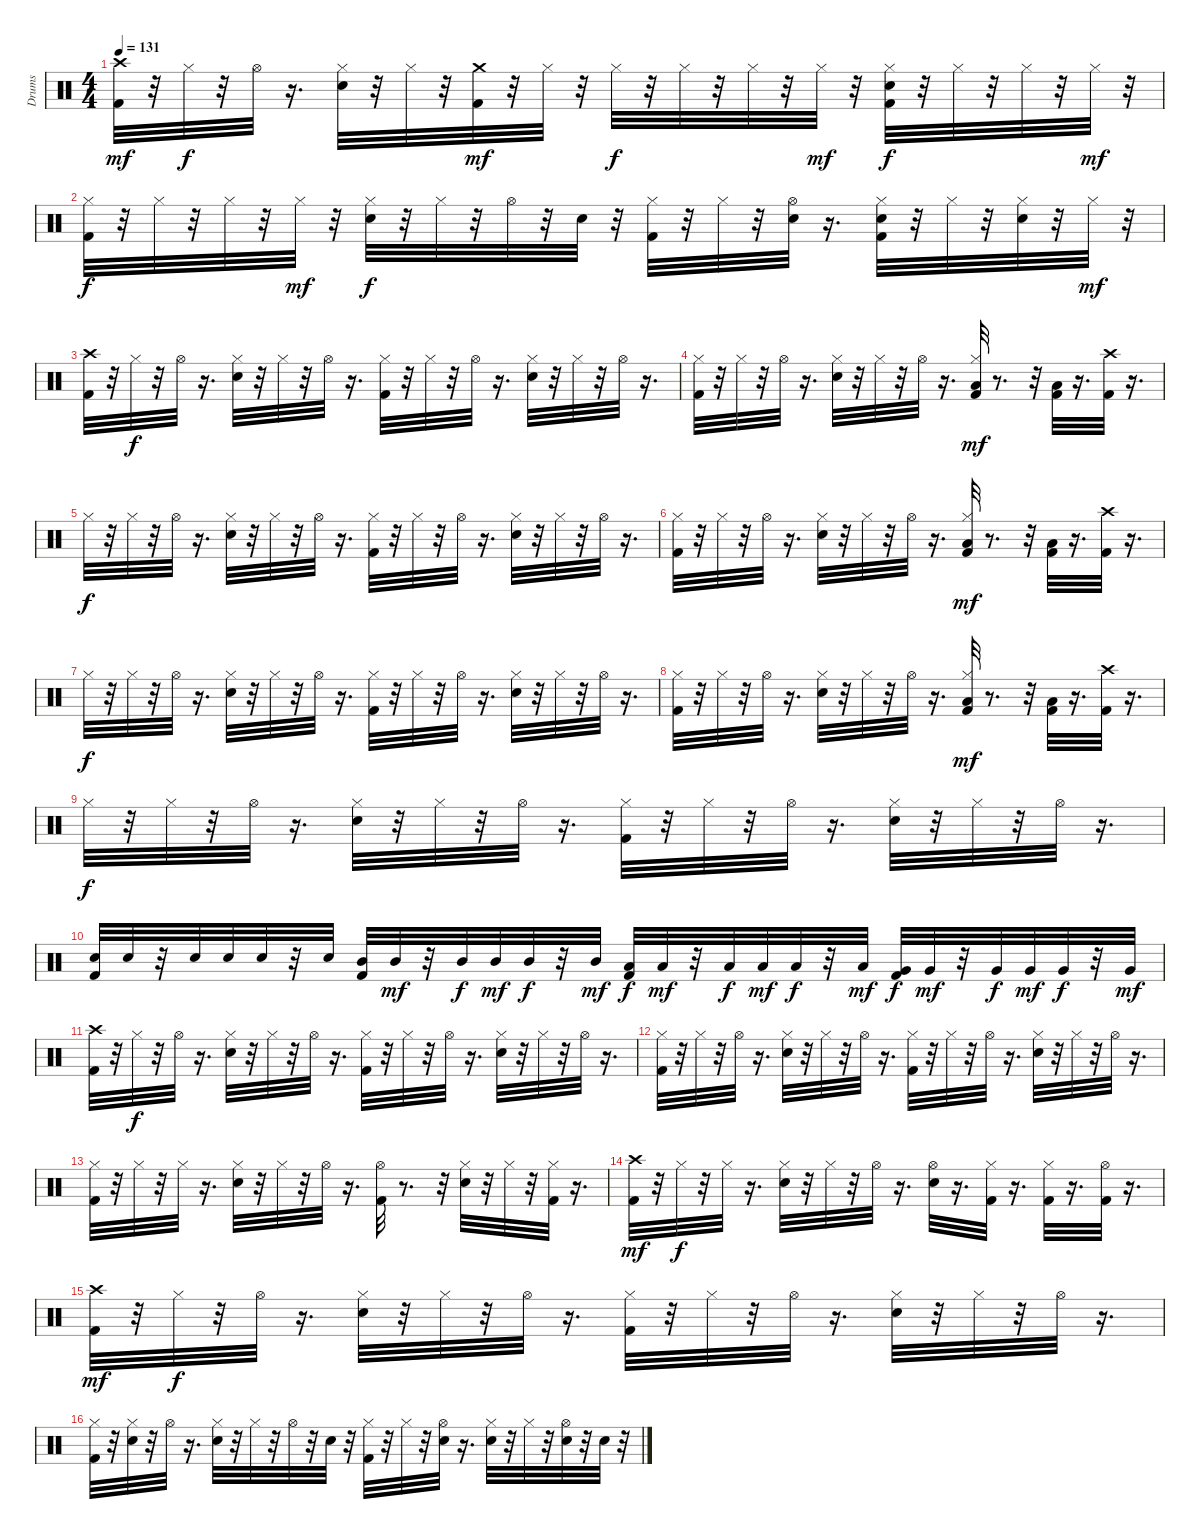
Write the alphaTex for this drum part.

\track ("Drums" "Drums") {instrument percussion}
\staff {score}
\articulation defaults
\ts (4 4)
\tempo 131
\clef neutral
\ks c
("Kick (hit) 2" "Crash high (hit)").32{dy mf} r.32 "Hi-Hat (closed)".32{dy f} r.32 "Hi-Hat (open)".32 r.16{d} ("Snare (hit) 2" "Hi-Hat (closed)").32 r.32 "Hi-Hat (closed)".32 r.32 ("Crash medium (hit)" "Kick (hit) 2").32{dy mf} r.32 "Hi-Hat (closed)".32 r.32 "Hi-Hat (closed)".32{dy f} r.32 "Hi-Hat (closed)".32 r.32 "Hi-Hat (closed)".32 r.32 "Hi-Hat (closed)".32{dy mf} r.32 ("Snare (hit) 2" "Hi-Hat (closed)" "Kick (hit) 2").32{dy f} r.32 "Hi-Hat (closed)".32 r.32 "Hi-Hat (closed)".32 r.32 "Hi-Hat (closed)".32{dy mf} r.32 |
("Kick (hit) 2" "Hi-Hat (closed)").32{dy f} r.32 "Hi-Hat (closed)".32 r.32 "Hi-Hat (closed)".32 r.32 "Hi-Hat (closed)".32{dy mf} r.32 ("Hi-Hat (closed)" "Snare (hit) 2").32{dy f} r.32 "Hi-Hat (closed)".32 r.32 "Hi-Hat (open)".32 r.32 "Snare (hit) 2".32 r.32 ("Hi-Hat (closed)" "Kick (hit) 2").32 r.32 "Hi-Hat (closed)".32 r.32 ("Snare (hit) 2" "Hi-Hat (open)").32 r.16{d} ("Hi-Hat (closed)" "Kick (hit) 2" "Snare (hit) 2").32 r.32 "Hi-Hat (closed)".32 r.32 ("Snare (hit) 2" "Hi-Hat (closed)").32 r.32 "Hi-Hat (closed)".32{dy mf} r.32 |
("Crash high (hit)" "Kick (hit) 2").32 r.32 "Hi-Hat (closed)".32{dy f} r.32 "Hi-Hat (open)".32 r.16{d} ("Hi-Hat (closed)" "Snare (hit) 2").32 r.32 "Hi-Hat (closed)".32 r.32 "Hi-Hat (open)".32 r.16{d} ("Hi-Hat (closed)" "Kick (hit) 2").32 r.32 "Hi-Hat (closed)".32 r.32 "Hi-Hat (open)".32 r.16{d} ("Snare (hit) 2" "Hi-Hat (closed)").32 r.32 "Hi-Hat (closed)".32 r.32 "Hi-Hat (open)".32 r.16{d} |
("Kick (hit) 2" "Hi-Hat (closed)").32 r.32 "Hi-Hat (closed)".32 r.32 "Hi-Hat (open)".32 r.16{d} ("Snare (hit) 2" "Hi-Hat (closed)").32 r.32 "Hi-Hat (closed)".32 r.32 "Hi-Hat (open)".32 r.16{d} ("Low Floor Tom (hit)" "Kick (hit) 2" "Hi-Hat (closed)").32{dy mf} r.8{d} r.32 ("Low Floor Tom (hit)" "Kick (hit) 2").32 r.16{d} ("Kick (hit) 2" "Crash high (hit)").32 r.16{d} |
"Hi-Hat (closed)".32{dy f} r.32 "Hi-Hat (closed)".32 r.32 "Hi-Hat (open)".32 r.16{d} ("Hi-Hat (closed)" "Snare (hit) 2").32 r.32 "Hi-Hat (closed)".32 r.32 "Hi-Hat (open)".32 r.16{d} ("Hi-Hat (closed)" "Kick (hit) 2").32 r.32 "Hi-Hat (closed)".32 r.32 "Hi-Hat (open)".32 r.16{d} ("Snare (hit) 2" "Hi-Hat (closed)").32 r.32 "Hi-Hat (closed)".32 r.32 "Hi-Hat (open)".32 r.16{d} |
("Kick (hit) 2" "Hi-Hat (closed)").32 r.32 "Hi-Hat (closed)".32 r.32 "Hi-Hat (open)".32 r.16{d} ("Snare (hit) 2" "Hi-Hat (closed)").32 r.32 "Hi-Hat (closed)".32 r.32 "Hi-Hat (open)".32 r.16{d} ("Low Floor Tom (hit)" "Kick (hit) 2" "Hi-Hat (closed)").32{dy mf} r.8{d} r.32 ("Low Floor Tom (hit)" "Kick (hit) 2").32 r.16{d} ("Kick (hit) 2" "Crash high (hit)").32 r.16{d} |
"Hi-Hat (closed)".32{dy f} r.32 "Hi-Hat (closed)".32 r.32 "Hi-Hat (open)".32 r.16{d} ("Hi-Hat (closed)" "Snare (hit) 2").32 r.32 "Hi-Hat (closed)".32 r.32 "Hi-Hat (open)".32 r.16{d} ("Hi-Hat (closed)" "Kick (hit) 2").32 r.32 "Hi-Hat (closed)".32 r.32 "Hi-Hat (open)".32 r.16{d} ("Snare (hit) 2" "Hi-Hat (closed)").32 r.32 "Hi-Hat (closed)".32 r.32 "Hi-Hat (open)".32 r.16{d} |
("Kick (hit) 2" "Hi-Hat (closed)").32 r.32 "Hi-Hat (closed)".32 r.32 "Hi-Hat (open)".32 r.16{d} ("Snare (hit) 2" "Hi-Hat (closed)").32 r.32 "Hi-Hat (closed)".32 r.32 "Hi-Hat (open)".32 r.16{d} ("Low Floor Tom (hit)" "Kick (hit) 2" "Hi-Hat (closed)").32{dy mf} r.8{d} r.32 ("Low Floor Tom (hit)" "Kick (hit) 2").32 r.16{d} ("Kick (hit) 2" "Crash high (hit)").32 r.16{d} |
"Hi-Hat (closed)".32{dy f} r.32 "Hi-Hat (closed)".32 r.32 "Hi-Hat (open)".32 r.16{d} ("Hi-Hat (closed)" "Snare (hit) 2").32 r.32 "Hi-Hat (closed)".32 r.32 "Hi-Hat (open)".32 r.16{d} ("Hi-Hat (closed)" "Kick (hit) 2").32 r.32 "Hi-Hat (closed)".32 r.32 "Hi-Hat (open)".32 r.16{d} ("Snare (hit) 2" "Hi-Hat (closed)").32 r.32 "Hi-Hat (closed)".32 r.32 "Hi-Hat (open)".32 r.16{d} |
("Snare (hit) 2" "Kick (hit) 2").32 "Snare (hit) 2".32 r.32 "Snare (hit) 2".32 "Snare (hit) 2".32 "Snare (hit) 2".32 r.32 "Snare (hit) 2".32 ("Kick (hit) 2" "Mid Tom (hit)").32 "Mid Tom (hit)".32{dy mf} r.32 "Mid Tom (hit)".32{dy f} "Mid Tom (hit)".32{dy mf} "Mid Tom (hit)".32{dy f} r.32 "Mid Tom (hit)".32{dy mf} ("Kick (hit) 2" "Low Tom (hit)").32{dy f} "Low Tom (hit)".32{dy mf} r.32 "Low Tom (hit)".32{dy f} "Low Tom (hit)".32{dy mf} "Low Tom (hit)".32{dy f} r.32 "Low Tom (hit)".32{dy mf} ("Kick (hit) 2" "Very Low Tom (hit)").32{dy f} "Very Low Tom (hit)".32{dy mf} r.32 "Very Low Tom (hit)".32{dy f} "Very Low Tom (hit)".32{dy mf} "Very Low Tom (hit)".32{dy f} r.32 "Very Low Tom (hit)".32{dy mf} |
("Crash high (hit)" "Kick (hit) 2").32 r.32 "Hi-Hat (closed)".32{dy f} r.32 "Hi-Hat (open)".32 r.16{d} ("Hi-Hat (closed)" "Snare (hit) 2").32 r.32 "Hi-Hat (closed)".32 r.32 "Hi-Hat (open)".32 r.16{d} ("Hi-Hat (closed)" "Kick (hit) 2").32 r.32 "Hi-Hat (closed)".32 r.32 "Hi-Hat (open)".32 r.16{d} ("Snare (hit) 2" "Hi-Hat (closed)").32 r.32 "Hi-Hat (closed)".32 r.32 "Hi-Hat (open)".32 r.16{d} |
("Kick (hit) 2" "Hi-Hat (closed)").32 r.32 "Hi-Hat (closed)".32 r.32 "Hi-Hat (open)".32 r.16{d} ("Snare (hit) 2" "Hi-Hat (closed)").32 r.32 "Hi-Hat (closed)".32 r.32 "Hi-Hat (open)".32 r.16{d} ("Kick (hit) 2" "Hi-Hat (closed)").32 r.32 "Hi-Hat (closed)".32 r.32 "Hi-Hat (open)".32 r.16{d} ("Hi-Hat (closed)" "Snare (hit) 2").32 r.32 "Hi-Hat (closed)".32 r.32 "Hi-Hat (open)".32 r.16{d} |
("Kick (hit) 2" "Hi-Hat (closed)").32 r.32 "Hi-Hat (closed)".32 r.32 "Hi-Hat (closed)".32 r.16{d} ("Snare (hit) 2" "Hi-Hat (closed)").32 r.32 "Hi-Hat (closed)".32 r.32 "Hi-Hat (open)".32 r.16{d} ("Kick (hit) 2" "Hi-Hat (open)").32 r.8{d} r.32 ("Hi-Hat (closed)" "Snare (hit) 2").32 r.32 "Hi-Hat (closed)".32 r.32 ("Kick (hit) 2" "Hi-Hat (closed)").32 r.16{d} |
("Crash high (hit)" "Kick (hit) 2").32{dy mf} r.32 "Hi-Hat (closed)".32{dy f} r.32 "Hi-Hat (closed)".32 r.16{d} ("Snare (hit) 2" "Hi-Hat (closed)").32 r.32 "Hi-Hat (closed)".32 r.32 "Hi-Hat (open)".32 r.16{d} ("Snare (hit) 2" "Hi-Hat (open)").32 r.16{d} ("Hi-Hat (closed)" "Kick (hit) 2").32 r.16{d} ("Hi-Hat (closed)" "Kick (hit) 2").32 r.16{d} ("Kick (hit) 2" "Hi-Hat (open)").32 r.16{d} |
("Crash high (hit)" "Kick (hit) 2").32{dy mf} r.32 "Hi-Hat (closed)".32{dy f} r.32 "Hi-Hat (open)".32 r.16{d} ("Hi-Hat (closed)" "Snare (hit) 2").32 r.32 "Hi-Hat (closed)".32 r.32 "Hi-Hat (open)".32 r.16{d} ("Hi-Hat (closed)" "Kick (hit) 2").32 r.32 "Hi-Hat (closed)".32 r.32 "Hi-Hat (open)".32 r.16{d} ("Snare (hit) 2" "Hi-Hat (closed)").32 r.32 "Hi-Hat (closed)".32 r.32 "Hi-Hat (open)".32 r.16{d} |
("Kick (hit) 2" "Hi-Hat (closed)").32 r.32 ("Snare (hit) 2" "Hi-Hat (closed)").32 r.32 "Hi-Hat (open)".32 r.16{d} ("Snare (hit) 2" "Hi-Hat (closed)").32 r.32 "Hi-Hat (closed)".32 r.32 "Hi-Hat (open)".32 r.32 "Snare (hit) 2".32 r.32 ("Kick (hit) 2" "Hi-Hat (closed)").32 r.32 "Hi-Hat (closed)".32 r.32 ("Snare (hit) 2" "Hi-Hat (open)").32 r.16{d} ("Hi-Hat (closed)" "Snare (hit) 2").32 r.32 "Hi-Hat (closed)".32 r.32 ("Snare (hit) 2" "Hi-Hat (open)").32 r.32 "Snare (hit) 2".32 r.32
